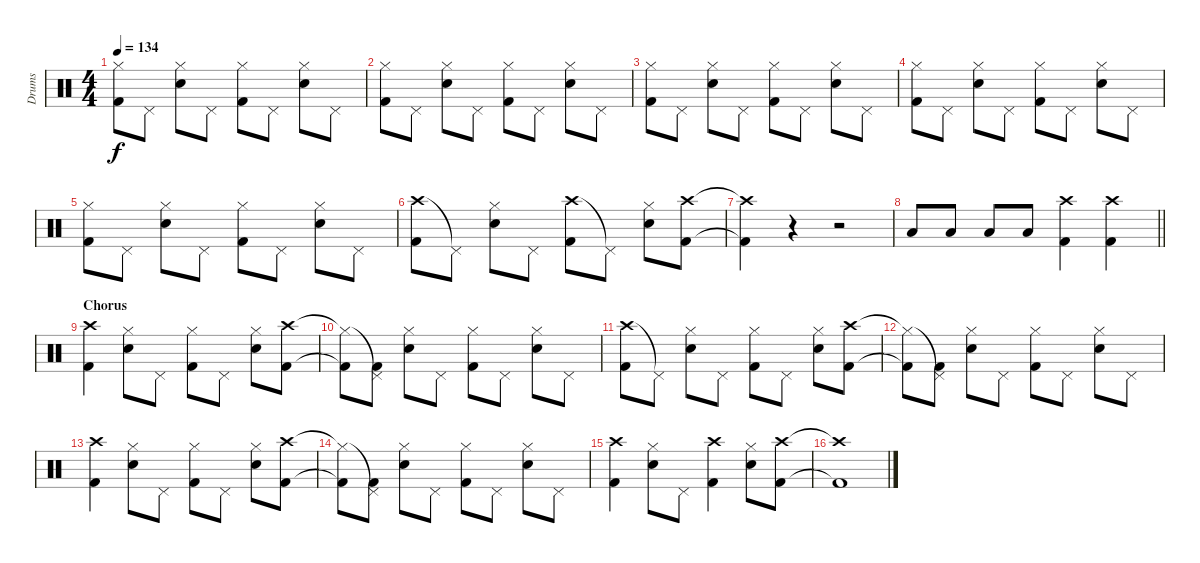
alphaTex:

\track ("Drums" "Drums") {instrument percussion}
\staff {score}
\articulation defaults
\ts (4 4)
\tempo 134
\clef neutral
\ks c
("Hi-Hat (closed)" "Kick (hit) 2").8{dy f} "Pedal Hi-Hat (hit)".8 ("Hi-Hat (closed)" "Snare (hit) 2").8 "Pedal Hi-Hat (hit)".8 ("Hi-Hat (closed)" "Kick (hit) 2").8 "Pedal Hi-Hat (hit)".8 ("Hi-Hat (closed)" "Snare (hit) 2").8 "Pedal Hi-Hat (hit)".8 |
("Hi-Hat (closed)" "Kick (hit) 2").8 "Pedal Hi-Hat (hit)".8 ("Hi-Hat (closed)" "Snare (hit) 2").8 "Pedal Hi-Hat (hit)".8 ("Hi-Hat (closed)" "Kick (hit) 2").8 "Pedal Hi-Hat (hit)".8 ("Hi-Hat (closed)" "Snare (hit) 2").8 "Pedal Hi-Hat (hit)".8 |
("Hi-Hat (closed)" "Kick (hit) 2").8 "Pedal Hi-Hat (hit)".8 ("Hi-Hat (closed)" "Snare (hit) 2").8 "Pedal Hi-Hat (hit)".8 ("Hi-Hat (closed)" "Kick (hit) 2").8 "Pedal Hi-Hat (hit)".8 ("Hi-Hat (closed)" "Snare (hit) 2").8 "Pedal Hi-Hat (hit)".8 |
("Hi-Hat (closed)" "Kick (hit) 2").8 "Pedal Hi-Hat (hit)".8 ("Hi-Hat (closed)" "Snare (hit) 2").8 "Pedal Hi-Hat (hit)".8 ("Hi-Hat (closed)" "Kick (hit) 2").8 "Pedal Hi-Hat (hit)".8 ("Hi-Hat (closed)" "Snare (hit) 2").8 "Pedal Hi-Hat (hit)".8 |
("Hi-Hat (closed)" "Kick (hit) 2").8 "Pedal Hi-Hat (hit)".8 ("Hi-Hat (closed)" "Snare (hit) 2").8 "Pedal Hi-Hat (hit)".8 ("Hi-Hat (closed)" "Kick (hit) 2").8 "Pedal Hi-Hat (hit)".8 ("Hi-Hat (closed)" "Snare (hit) 2").8 "Pedal Hi-Hat (hit)".8 |
("Crash high (hit)" "Kick (hit) 2").8 "Pedal Hi-Hat (hit)"{t}.8 ("Hi-Hat (closed)" "Snare (hit) 2").8 "Pedal Hi-Hat (hit)".8 ("Crash high (hit)" "Kick (hit) 2").8 "Pedal Hi-Hat (hit)"{t}.8 ("Hi-Hat (closed)" "Snare (hit) 2").8 ("Crash high (hit)" "Kick (hit) 2").8 |
("Crash high (hit)"{t} "Kick (hit) 2"{t}).4 r.4 r.2 |
\barLineRight lightlight "Low Tom (hit)".8 "Low Tom (hit)".8 "Low Tom (hit)".8 "Low Tom (hit)".8
("Crash high (hit)" "Kick (hit) 2").4 ("Crash high (hit)" "Kick (hit) 2").4 |
\section ("" "Chorus")
("Crash high (hit)" "Kick (hit) 2").4 ("Hi-Hat (closed)" "Snare (hit) 2").8 "Pedal Hi-Hat (hit)".8 ("Hi-Hat (closed)" "Kick (hit) 2").8 "Pedal Hi-Hat (hit)".8 ("Hi-Hat (closed)" "Snare (hit) 2").8 ("Crash high (hit)" "Kick (hit) 2").8 |
("Hi-Hat (closed)"{t} "Kick (hit) 2"{t}).8 ("Pedal Hi-Hat (hit)"{t} "Kick (hit) 2").8 ("Hi-Hat (closed)" "Snare (hit) 2").8 "Pedal Hi-Hat (hit)".8 ("Hi-Hat (closed)" "Kick (hit) 2").8 "Pedal Hi-Hat (hit)".8 ("Hi-Hat (closed)" "Snare (hit) 2").8 "Pedal Hi-Hat (hit)".8 |
("Crash high (hit)" "Kick (hit) 2").8 "Pedal Hi-Hat (hit)"{t}.8 ("Hi-Hat (closed)" "Snare (hit) 2").8 "Pedal Hi-Hat (hit)".8 ("Hi-Hat (closed)" "Kick (hit) 2").8 "Pedal Hi-Hat (hit)".8 ("Hi-Hat (closed)" "Snare (hit) 2").8 ("Crash high (hit)" "Kick (hit) 2").8 |
("Hi-Hat (closed)"{t} "Kick (hit) 2"{t}).8 ("Pedal Hi-Hat (hit)"{t} "Kick (hit) 2").8 ("Hi-Hat (closed)" "Snare (hit) 2").8 "Pedal Hi-Hat (hit)".8 ("Hi-Hat (closed)" "Kick (hit) 2").8 "Pedal Hi-Hat (hit)".8 ("Hi-Hat (closed)" "Snare (hit) 2").8 "Pedal Hi-Hat (hit)".8 |
("Crash high (hit)" "Kick (hit) 2").4 ("Hi-Hat (closed)" "Snare (hit) 2").8 "Pedal Hi-Hat (hit)".8 ("Hi-Hat (closed)" "Kick (hit) 2").8 "Pedal Hi-Hat (hit)".8 ("Hi-Hat (closed)" "Snare (hit) 2").8 ("Crash high (hit)" "Kick (hit) 2").8 |
("Hi-Hat (closed)"{t} "Kick (hit) 2"{t}).8 ("Pedal Hi-Hat (hit)"{t} "Kick (hit) 2").8 ("Hi-Hat (closed)" "Snare (hit) 2").8 "Pedal Hi-Hat (hit)".8 ("Hi-Hat (closed)" "Kick (hit) 2").8 "Pedal Hi-Hat (hit)".8 ("Hi-Hat (closed)" "Snare (hit) 2").8 "Pedal Hi-Hat (hit)".8 |
("Crash high (hit)" "Kick (hit) 2").4 ("Hi-Hat (closed)" "Snare (hit) 2").8 "Pedal Hi-Hat (hit)".8 ("Crash high (hit)" "Kick (hit) 2").4 ("Hi-Hat (closed)" "Snare (hit) 2").8 ("Crash high (hit)" "Kick (hit) 2").8 |
("Crash high (hit)"{t} "Kick (hit) 2"{t}).1
